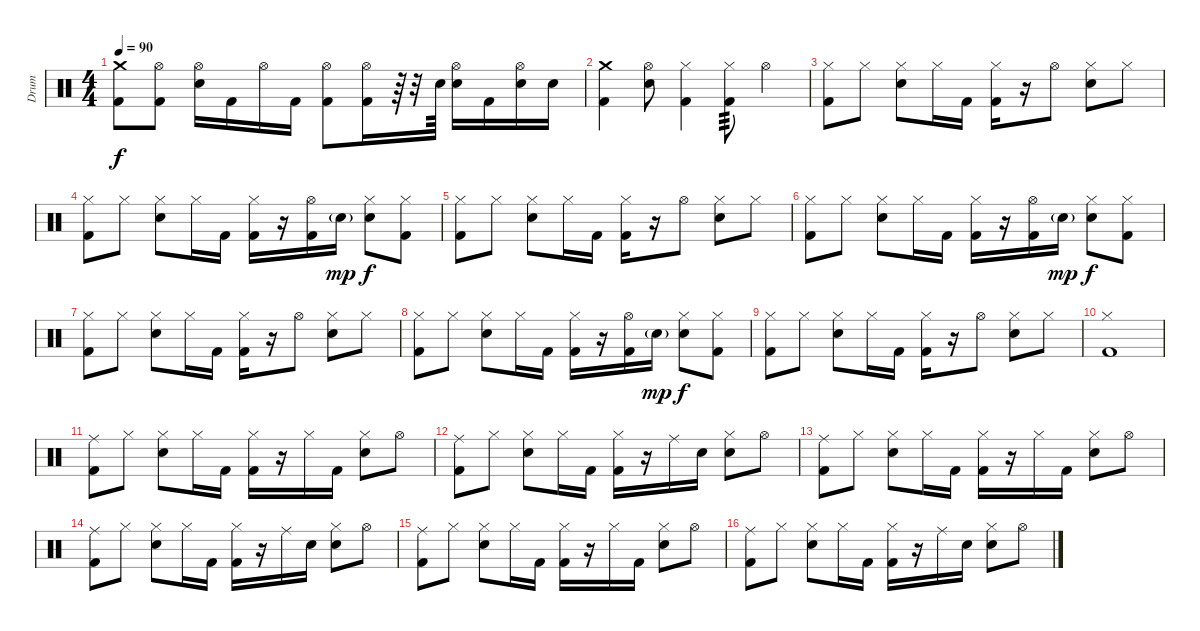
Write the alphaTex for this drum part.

\track ("Drum" "Drum") {instrument percussion}
\staff {score}
\articulation defaults
\ts (4 4)
\tempo 90
\clef neutral
\ks c
("Crash medium (hit)" "Kick (hit) 2").8{dy f} ("Hi-Hat (open)" "Kick (hit) 2").8 ("Hi-Hat (open)" "Snare (hit) 2").16 "Kick (hit) 2".16 "Hi-Hat (open)".16 "Kick (hit) 2".16 ("Hi-Hat (open)" "Kick (hit) 2").8 ("Hi-Hat (open)" "Kick (hit) 2").16 r.64 r.32 "Snare (hit) 2".64 ("Hi-Hat (open)" "Snare (hit) 2").16 "Kick (hit) 2".16 ("Hi-Hat (open)" "Snare (hit) 2").16 "Snare (hit) 2".16 |
("Crash medium (hit)" "Kick (hit) 2").4 ("Hi-Hat (open)" "Snare (hit) 2").8 ("Hi-Hat (closed)" "Kick (hit) 2").4 ("Hi-Hat (closed)" "Kick (hit) 2").8{tp 3} "Hi-Hat (open)".4 |
("Hi-Hat (closed)" "Kick (hit) 2").8 "Hi-Hat (closed)".8 ("Hi-Hat (closed)" "Snare (hit) 2").8 "Hi-Hat (closed)".16 "Kick (hit) 2".16 ("Hi-Hat (closed)" "Kick (hit) 2").16 r.16 "Hi-Hat (open)".8 ("Hi-Hat (closed)" "Snare (hit) 2").8 "Hi-Hat (closed)".8 |
("Hi-Hat (closed)" "Kick (hit) 2").8 "Hi-Hat (closed)".8 ("Hi-Hat (closed)" "Snare (hit) 2").8 "Hi-Hat (closed)".16 "Kick (hit) 2".16 ("Hi-Hat (closed)" "Kick (hit) 2").16 r.16 ("Hi-Hat (open)" "Kick (hit) 2").16 "Snare (hit) 2"{g}.16{dy mp} ("Hi-Hat (closed)" "Snare (hit) 2").8{dy f} ("Hi-Hat (closed)" "Kick (hit) 2").8 |
("Hi-Hat (closed)" "Kick (hit) 2").8 "Hi-Hat (closed)".8 ("Hi-Hat (closed)" "Snare (hit) 2").8 "Hi-Hat (closed)".16 "Kick (hit) 2".16 ("Hi-Hat (closed)" "Kick (hit) 2").16 r.16 "Hi-Hat (open)".8 ("Hi-Hat (closed)" "Snare (hit) 2").8 "Hi-Hat (closed)".8 |
("Hi-Hat (closed)" "Kick (hit) 2").8 "Hi-Hat (closed)".8 ("Hi-Hat (closed)" "Snare (hit) 2").8 "Hi-Hat (closed)".16 "Kick (hit) 2".16 ("Hi-Hat (closed)" "Kick (hit) 2").16 r.16 ("Hi-Hat (open)" "Kick (hit) 2").16 "Snare (hit) 2"{g}.16{dy mp} ("Hi-Hat (closed)" "Snare (hit) 2").8{dy f} ("Hi-Hat (closed)" "Kick (hit) 2").8 |
("Hi-Hat (closed)" "Kick (hit) 2").8 "Hi-Hat (closed)".8 ("Hi-Hat (closed)" "Snare (hit) 2").8 "Hi-Hat (closed)".16 "Kick (hit) 2".16 ("Hi-Hat (closed)" "Kick (hit) 2").16 r.16 "Hi-Hat (open)".8 ("Hi-Hat (closed)" "Snare (hit) 2").8 "Hi-Hat (closed)".8 |
("Hi-Hat (closed)" "Kick (hit) 2").8 "Hi-Hat (closed)".8 ("Hi-Hat (closed)" "Snare (hit) 2").8 "Hi-Hat (closed)".16 "Kick (hit) 2".16 ("Hi-Hat (closed)" "Kick (hit) 2").16 r.16 ("Hi-Hat (open)" "Kick (hit) 2").16 "Snare (hit) 2"{g}.16{dy mp} ("Hi-Hat (closed)" "Snare (hit) 2").8{dy f} ("Hi-Hat (closed)" "Kick (hit) 2").8 |
("Hi-Hat (closed)" "Kick (hit) 2").8 "Hi-Hat (closed)".8 ("Hi-Hat (closed)" "Snare (hit) 2").8 "Hi-Hat (closed)".16 "Kick (hit) 2".16 ("Hi-Hat (closed)" "Kick (hit) 2").16 r.16 "Hi-Hat (open)".8 ("Hi-Hat (closed)" "Snare (hit) 2").8 "Hi-Hat (closed)".8 |
("Hi-Hat (closed)" "Kick (hit) 2").1 |
("Ride (middle)" "Kick (hit) 2").8 "Hi-Hat (closed)".8 ("Hi-Hat (closed)" "Snare (hit) 2").8 "Hi-Hat (closed)".16 "Kick (hit) 2".16 ("Hi-Hat (closed)" "Kick (hit) 2").16 r.16 "Hi-Hat (closed)".16 "Kick (hit) 2".16 ("Hi-Hat (closed)" "Snare (hit) 2").8 "Hi-Hat (open)".8 |
("Ride (middle)" "Kick (hit) 2").8 "Hi-Hat (closed)".8 ("Hi-Hat (closed)" "Snare (hit) 2").8 "Hi-Hat (closed)".16 "Kick (hit) 2".16 ("Hi-Hat (closed)" "Kick (hit) 2").16 r.16 "Ride (middle)".16 "Snare (hit) 2".16 ("Hi-Hat (closed)" "Snare (hit) 2").8 "Hi-Hat (open)".8 |
("Ride (middle)" "Kick (hit) 2").8 "Hi-Hat (closed)".8 ("Hi-Hat (closed)" "Snare (hit) 2").8 "Hi-Hat (closed)".16 "Kick (hit) 2".16 ("Hi-Hat (closed)" "Kick (hit) 2").16 r.16 "Hi-Hat (closed)".16 "Kick (hit) 2".16 ("Hi-Hat (closed)" "Snare (hit) 2").8 "Hi-Hat (open)".8 |
("Ride (middle)" "Kick (hit) 2").8 "Hi-Hat (closed)".8 ("Hi-Hat (closed)" "Snare (hit) 2").8 "Hi-Hat (closed)".16 "Kick (hit) 2".16 ("Hi-Hat (closed)" "Kick (hit) 2").16 r.16 "Ride (middle)".16 "Snare (hit) 2".16 ("Hi-Hat (closed)" "Snare (hit) 2").8 "Hi-Hat (open)".8 |
("Ride (middle)" "Kick (hit) 2").8 "Hi-Hat (closed)".8 ("Hi-Hat (closed)" "Snare (hit) 2").8 "Hi-Hat (closed)".16 "Kick (hit) 2".16 ("Hi-Hat (closed)" "Kick (hit) 2").16 r.16 "Hi-Hat (closed)".16 "Kick (hit) 2".16 ("Hi-Hat (closed)" "Snare (hit) 2").8 "Hi-Hat (open)".8 |
("Ride (middle)" "Kick (hit) 2").8 "Hi-Hat (closed)".8 ("Hi-Hat (closed)" "Snare (hit) 2").8 "Hi-Hat (closed)".16 "Kick (hit) 2".16 ("Hi-Hat (closed)" "Kick (hit) 2").16 r.16 "Ride (middle)".16 "Snare (hit) 2".16 ("Hi-Hat (closed)" "Snare (hit) 2").8 "Hi-Hat (open)".8
